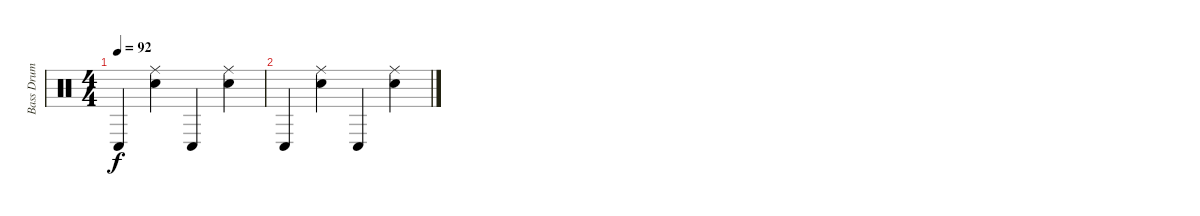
\track ("Bass Drum" "Bass Drum") {instrument percussion}
\staff {score}
\articulation defaults
\ts (4 4)
\tempo 92
\clef neutral
\ks c "Conga low (hit)".4{dy f}
("Snare (hit) 2" "Ride (middle)").4 "Conga low (hit)".4 ("Snare (hit) 2" "Ride (middle)").4 |
"Conga low (hit)".4 ("Snare (hit) 2" "Ride (middle)").4 "Conga low (hit)".4 ("Snare (hit) 2" "Ride (middle)").4
